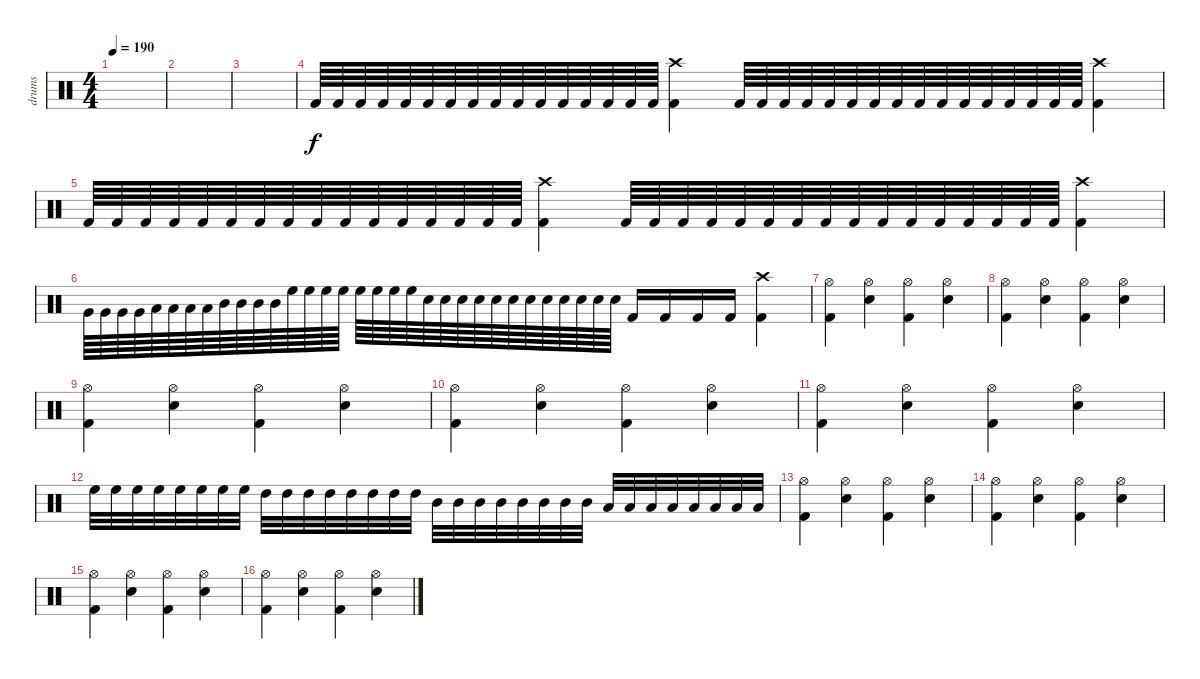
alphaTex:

\track ("drums" "drums") {instrument percussion}
\staff {score}
\articulation defaults
\ts (4 4)
\tempo 190
\clef neutral
\ks c
|
|
|
"Kick (hit) 2".64 "Kick (hit) 2".64 "Kick (hit) 2".64 "Kick (hit) 2".64 "Kick (hit) 2".64 "Kick (hit) 2".64 "Kick (hit) 2".64 "Kick (hit) 2".64 "Kick (hit) 2".64 "Kick (hit) 2".64 "Kick (hit) 2".64 "Kick (hit) 2".64 "Kick (hit) 2".64 "Kick (hit) 2".64 "Kick (hit) 2".64 "Kick (hit) 2".64 ("Kick (hit) 2" "Crash high (hit)").4 "Kick (hit) 2".64 "Kick (hit) 2".64 "Kick (hit) 2".64 "Kick (hit) 2".64 "Kick (hit) 2".64 "Kick (hit) 2".64 "Kick (hit) 2".64 "Kick (hit) 2".64 "Kick (hit) 2".64 "Kick (hit) 2".64 "Kick (hit) 2".64 "Kick (hit) 2".64 "Kick (hit) 2".64 "Kick (hit) 2".64 "Kick (hit) 2".64 "Kick (hit) 2".64 ("Kick (hit) 2" "Crash high (hit)").4 |
"Kick (hit) 2".64 "Kick (hit) 2".64 "Kick (hit) 2".64 "Kick (hit) 2".64 "Kick (hit) 2".64 "Kick (hit) 2".64 "Kick (hit) 2".64 "Kick (hit) 2".64 "Kick (hit) 2".64 "Kick (hit) 2".64 "Kick (hit) 2".64 "Kick (hit) 2".64 "Kick (hit) 2".64 "Kick (hit) 2".64 "Kick (hit) 2".64 "Kick (hit) 2".64 ("Kick (hit) 2" "Crash high (hit)").4 "Kick (hit) 2".64 "Kick (hit) 2".64 "Kick (hit) 2".64 "Kick (hit) 2".64 "Kick (hit) 2".64 "Kick (hit) 2".64 "Kick (hit) 2".64 "Kick (hit) 2".64 "Kick (hit) 2".64 "Kick (hit) 2".64 "Kick (hit) 2".64 "Kick (hit) 2".64 "Kick (hit) 2".64 "Kick (hit) 2".64 "Kick (hit) 2".64 "Kick (hit) 2".64 ("Kick (hit) 2" "Crash high (hit)").4 |
"Very Low Tom (hit)".64 "Very Low Tom (hit)".64 "Very Low Tom (hit)".64 "Very Low Tom (hit)".64 "Low Tom (hit)".64 "Low Tom (hit)".64 "Low Tom (hit)".64 "Low Tom (hit)".64 "Mid Tom (hit)".64 "Mid Tom (hit)".64 "Mid Tom (hit)".64 "Mid Tom (hit)".64 "High Floor Tom (hit)".64 "High Floor Tom (hit)".64 "High Floor Tom (hit)".64 "High Floor Tom (hit)".64 "High Floor Tom (hit)".64 "High Floor Tom (hit)".64 "High Floor Tom (hit)".64 "High Floor Tom (hit)".64 "Snare (hit) 2".64 "Snare (hit) 2".64 "Snare (hit) 2".64 "Snare (hit) 2".64 "Snare (hit) 2".64 "Snare (hit) 2".64 "Snare (hit) 2".64 "Snare (hit) 2".64 "Snare (hit) 2".64 "Snare (hit) 2".64 "Snare (hit) 2".64 "Snare (hit) 2".64 "Kick (hit) 2".16 "Kick (hit) 2".16 "Kick (hit) 2".16 "Kick (hit) 2".16 ("Kick (hit) 2" "Crash high (hit)").4 |
("Kick (hit) 2" "Hi-Hat (open)").4 ("Hi-Hat (open)" "Snare (hit) 2").4 ("Kick (hit) 2" "Hi-Hat (open)").4 ("Hi-Hat (open)" "Snare (hit) 2").4 |
("Kick (hit) 2" "Hi-Hat (open)").4 ("Hi-Hat (open)" "Snare (hit) 2").4 ("Kick (hit) 2" "Hi-Hat (open)").4 ("Hi-Hat (open)" "Snare (hit) 2").4 |
("Kick (hit) 2" "Hi-Hat (open)").4 ("Hi-Hat (open)" "Snare (hit) 2").4 ("Kick (hit) 2" "Hi-Hat (open)").4 ("Hi-Hat (open)" "Snare (hit) 2").4 |
("Kick (hit) 2" "Hi-Hat (open)").4 ("Hi-Hat (open)" "Snare (hit) 2").4 ("Kick (hit) 2" "Hi-Hat (open)").4 ("Hi-Hat (open)" "Snare (hit) 2").4 |
("Kick (hit) 2" "Hi-Hat (open)").4 ("Hi-Hat (open)" "Snare (hit) 2").4 ("Kick (hit) 2" "Hi-Hat (open)").4 ("Hi-Hat (open)" "Snare (hit) 2").4 |
"High Floor Tom (hit)".32 "High Floor Tom (hit)".32 "High Floor Tom (hit)".32 "High Floor Tom (hit)".32 "High Floor Tom (hit)".32 "High Floor Tom (hit)".32 "High Floor Tom (hit)".32 "High Floor Tom (hit)".32 "High Tom (hit)".32 "High Tom (hit)".32 "High Tom (hit)".32 "High Tom (hit)".32 "High Tom (hit)".32 "High Tom (hit)".32 "High Tom (hit)".32 "High Tom (hit)".32 "Mid Tom (hit)".32 "Mid Tom (hit)".32 "Mid Tom (hit)".32 "Mid Tom (hit)".32 "Mid Tom (hit)".32 "Mid Tom (hit)".32 "Mid Tom (hit)".32 "Mid Tom (hit)".32 "Low Tom (hit)".32 "Low Tom (hit)".32 "Low Tom (hit)".32 "Low Tom (hit)".32 "Low Tom (hit)".32 "Low Tom (hit)".32 "Low Tom (hit)".32 "Low Tom (hit)".32 |
("Kick (hit) 2" "Hi-Hat (open)").4 ("Hi-Hat (open)" "Snare (hit) 2").4 ("Kick (hit) 2" "Hi-Hat (open)").4 ("Hi-Hat (open)" "Snare (hit) 2").4 |
("Kick (hit) 2" "Hi-Hat (open)").4 ("Hi-Hat (open)" "Snare (hit) 2").4 ("Kick (hit) 2" "Hi-Hat (open)").4 ("Hi-Hat (open)" "Snare (hit) 2").4 |
("Kick (hit) 2" "Hi-Hat (open)").4 ("Hi-Hat (open)" "Snare (hit) 2").4 ("Kick (hit) 2" "Hi-Hat (open)").4 ("Hi-Hat (open)" "Snare (hit) 2").4 |
("Kick (hit) 2" "Hi-Hat (open)").4 ("Hi-Hat (open)" "Snare (hit) 2").4 ("Kick (hit) 2" "Hi-Hat (open)").4 ("Hi-Hat (open)" "Snare (hit) 2").4
